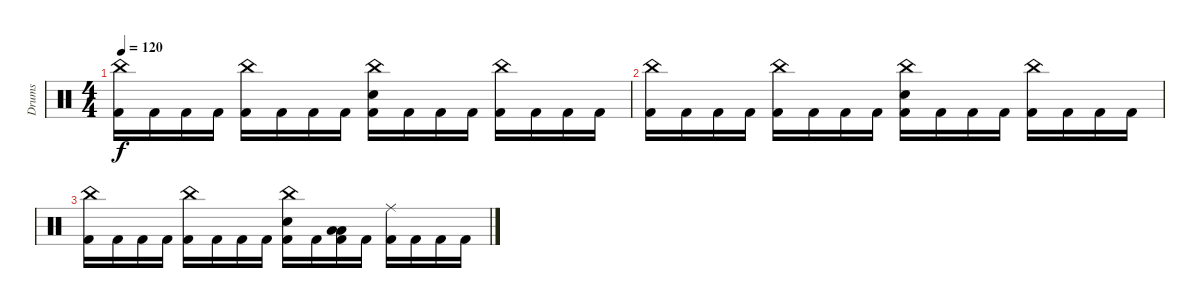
\track ("Drums" "Drums") {instrument percussion}
\staff {score}
\articulation defaults
\ts (4 4)
\tempo 120
\clef neutral
\ks c
("China (hit)" "Kick (hit) 2").16{dy f} "Kick (hit) 2".16 "Kick (hit) 2".16 "Kick (hit) 2".16 ("China (hit)" "Kick (hit) 2").16 "Kick (hit) 2".16 "Kick (hit) 2".16 "Kick (hit) 2".16 ("China (hit)" "Snare (hit) 2" "Kick (hit) 2").16 "Kick (hit) 2".16 "Kick (hit) 2".16 "Kick (hit) 2".16 ("China (hit)" "Kick (hit) 2").16 "Kick (hit) 2".16 "Kick (hit) 2".16 "Kick (hit) 2".16 |
("China (hit)" "Kick (hit) 2").16 "Kick (hit) 2".16 "Kick (hit) 2".16 "Kick (hit) 2".16 ("China (hit)" "Kick (hit) 2").16 "Kick (hit) 2".16 "Kick (hit) 2".16 "Kick (hit) 2".16 ("China (hit)" "Snare (hit) 2" "Kick (hit) 2").16 "Kick (hit) 2".16 "Kick (hit) 2".16 "Kick (hit) 2".16 ("China (hit)" "Kick (hit) 2").16 "Kick (hit) 2".16 "Kick (hit) 2".16 "Kick (hit) 2".16 |
("China (hit)" "Kick (hit) 2").16 "Kick (hit) 2".16 "Kick (hit) 2".16 "Kick (hit) 2".16 ("China (hit)" "Kick (hit) 2").16 "Kick (hit) 2".16 "Kick (hit) 2".16 "Kick (hit) 2".16 ("China (hit)" "Snare (hit) 2" "Kick (hit) 2").16 "Kick (hit) 2".16 ("Low Floor Tom (hit)" "Low Tom (hit)" "Kick (hit) 2").16 "Kick (hit) 2".16 ("Ride (middle)" "Kick (hit) 2").16 "Kick (hit) 2".16 "Kick (hit) 2".16 "Kick (hit) 2".16
